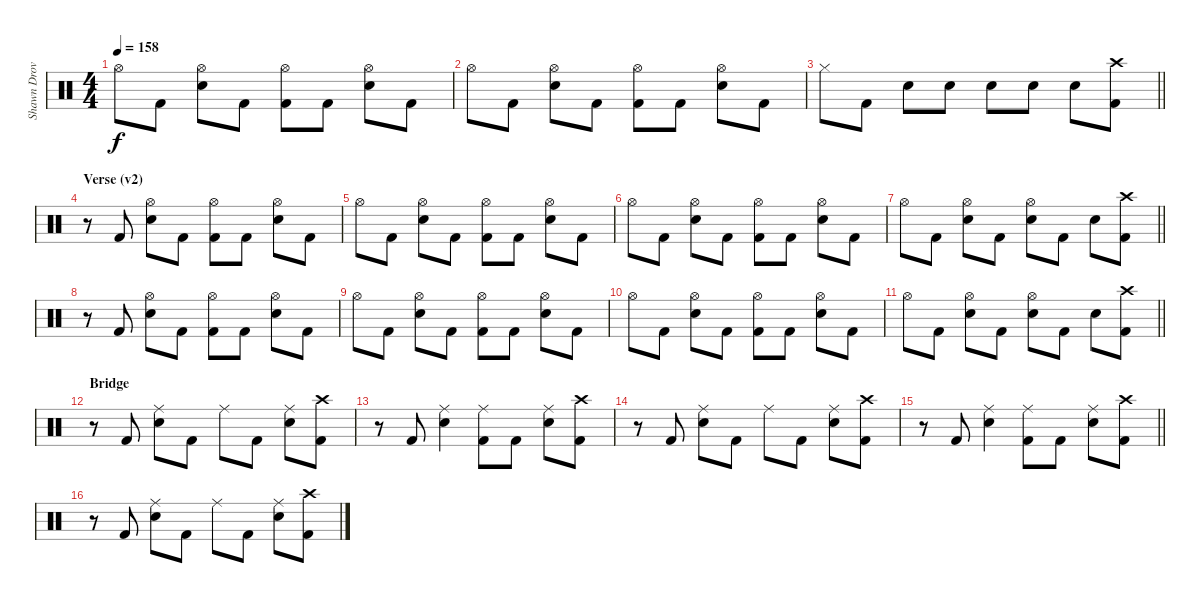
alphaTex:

\track ("Shawn Drover" "Shawn Drov") {instrument percussion}
\staff
\articulation defaults
\ts (4 4)
\tempo 158
\clef neutral
\ks c "Hi-Hat (open)".8{dy f} "Kick (hit) 2".8
("Hi-Hat (open)" "Snare (hit) 2").8 "Kick (hit) 2".8 ("Hi-Hat (open)" "Kick (hit) 2").8 "Kick (hit) 2".8 ("Hi-Hat (open)" "Snare (hit) 2").8 "Kick (hit) 2".8 |
"Hi-Hat (open)".8 "Kick (hit) 2".8 ("Hi-Hat (open)" "Snare (hit) 2").8 "Kick (hit) 2".8 ("Hi-Hat (open)" "Kick (hit) 2").8 "Kick (hit) 2".8 ("Hi-Hat (open)" "Snare (hit) 2").8 "Kick (hit) 2".8 |
\barLineRight lightlight "Hi-Hat (closed)".8 "Kick (hit) 2".8 "Snare (hit) 2".8 "Snare (hit) 2".8 "Snare (hit) 2".8 "Snare (hit) 2".8 "Snare (hit) 2".8
("Crash high (hit)" "Kick (hit) 2").8 |
\section ("" "Verse (v2)")
r.8 "Kick (hit) 2".8 ("Hi-Hat (open)" "Snare (hit) 2").8 "Kick (hit) 2".8 ("Hi-Hat (open)" "Kick (hit) 2").8 "Kick (hit) 2".8 ("Hi-Hat (open)" "Snare (hit) 2").8 "Kick (hit) 2".8 |
"Hi-Hat (open)".8 "Kick (hit) 2".8 ("Hi-Hat (open)" "Snare (hit) 2").8 "Kick (hit) 2".8 ("Hi-Hat (open)" "Kick (hit) 2").8 "Kick (hit) 2".8 ("Hi-Hat (open)" "Snare (hit) 2").8 "Kick (hit) 2".8 |
"Hi-Hat (open)".8 "Kick (hit) 2".8 ("Hi-Hat (open)" "Snare (hit) 2").8 "Kick (hit) 2".8 ("Hi-Hat (open)" "Kick (hit) 2").8 "Kick (hit) 2".8 ("Hi-Hat (open)" "Snare (hit) 2").8 "Kick (hit) 2".8 |
\barLineRight lightlight "Hi-Hat (open)".8 "Kick (hit) 2".8
("Hi-Hat (open)" "Snare (hit) 2").8 "Kick (hit) 2".8 ("Hi-Hat (open)" "Snare (hit) 2").8 "Kick (hit) 2".8 "Snare (hit) 2".8 ("Crash high (hit)" "Kick (hit) 2").8 |
r.8 "Kick (hit) 2".8 ("Hi-Hat (open)" "Snare (hit) 2").8 "Kick (hit) 2".8 ("Hi-Hat (open)" "Kick (hit) 2").8 "Kick (hit) 2".8 ("Hi-Hat (open)" "Snare (hit) 2").8 "Kick (hit) 2".8 |
"Hi-Hat (open)".8 "Kick (hit) 2".8 ("Hi-Hat (open)" "Snare (hit) 2").8 "Kick (hit) 2".8 ("Hi-Hat (open)" "Kick (hit) 2").8 "Kick (hit) 2".8 ("Hi-Hat (open)" "Snare (hit) 2").8 "Kick (hit) 2".8 |
"Hi-Hat (open)".8 "Kick (hit) 2".8 ("Hi-Hat (open)" "Snare (hit) 2").8 "Kick (hit) 2".8 ("Hi-Hat (open)" "Kick (hit) 2").8 "Kick (hit) 2".8 ("Hi-Hat (open)" "Snare (hit) 2").8 "Kick (hit) 2".8 |
\barLineRight lightlight "Hi-Hat (open)".8 "Kick (hit) 2".8
("Hi-Hat (open)" "Snare (hit) 2").8 "Kick (hit) 2".8 ("Hi-Hat (open)" "Snare (hit) 2").8 "Kick (hit) 2".8 "Snare (hit) 2".8 ("Crash high (hit)" "Kick (hit) 2").8 |
\section ("" "Bridge")
r.8 "Kick (hit) 2".8 ("Ride (middle)" "Snare (hit) 2").8 "Kick (hit) 2".8 "Ride (middle)".8 "Kick (hit) 2".8 ("Ride (middle)" "Snare (hit) 2").8 ("Crash high (hit)" "Kick (hit) 2").8 |
r.8 "Kick (hit) 2".8 ("Ride (middle)" "Snare (hit) 2").4 ("Ride (middle)" "Kick (hit) 2").8 "Kick (hit) 2".8 ("Ride (middle)" "Snare (hit) 2").8 ("Crash high (hit)" "Kick (hit) 2").8 |
r.8 "Kick (hit) 2".8 ("Ride (middle)" "Snare (hit) 2").8 "Kick (hit) 2".8 "Ride (middle)".8 "Kick (hit) 2".8 ("Ride (middle)" "Snare (hit) 2").8 ("Crash high (hit)" "Kick (hit) 2").8 |
\barLineRight lightlight
r.8 "Kick (hit) 2".8 ("Ride (middle)" "Snare (hit) 2").4 ("Ride (middle)" "Kick (hit) 2").8 "Kick (hit) 2".8 ("Ride (middle)" "Snare (hit) 2").8 ("Crash high (hit)" "Kick (hit) 2").8 |
r.8 "Kick (hit) 2".8 ("Ride (middle)" "Snare (hit) 2").8 "Kick (hit) 2".8 "Ride (middle)".8 "Kick (hit) 2".8 ("Ride (middle)" "Snare (hit) 2").8 ("Crash high (hit)" "Kick (hit) 2").8
